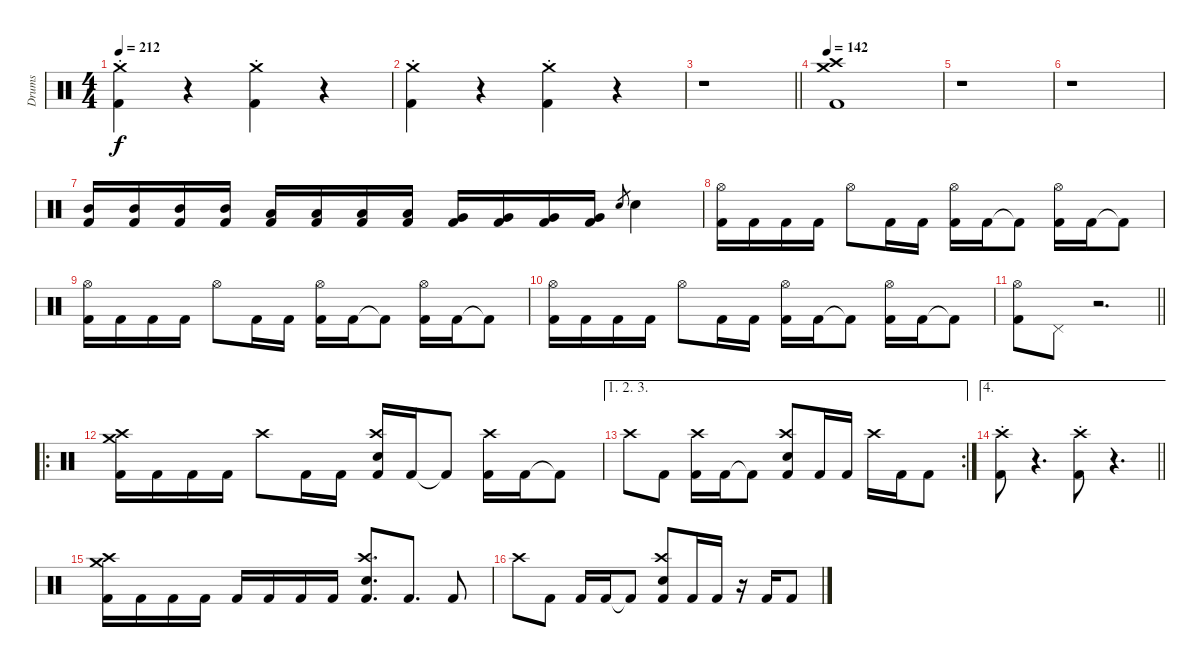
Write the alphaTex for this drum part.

\track ("Drums" "Drums") {instrument percussion}
\staff {score}
\articulation defaults
\ts (4 4)
\tempo 212
\clef neutral
\ks c
("Crash medium (hit)"{st} "Kick (hit) 2").4{dy f} r.4{volume 0} ("Crash medium (hit)"{st} "Kick (hit) 2").4{volume 14} r.4{volume 0} |
("Crash medium (hit)"{st} "Kick (hit) 2").4{volume 14} r.4{volume 0} ("Crash medium (hit)"{st} "Kick (hit) 2").4{volume 14} r.4{volume 0} |
\barLineRight lightlight
r.1 |
\tempo 142
("Crash medium (hit)" "Crash high (hit)" "Kick (hit) 2").1{volume 14} |
r.1 |
r.1 |
("Mid Tom (hit)" "Kick (hit) 2").16 ("Mid Tom (hit)" "Kick (hit) 2").16 ("Mid Tom (hit)" "Kick (hit) 2").16 ("Mid Tom (hit)" "Kick (hit) 2").16 ("Low Tom (hit)" "Kick (hit) 2").16 ("Low Tom (hit)" "Kick (hit) 2").16 ("Low Tom (hit)" "Kick (hit) 2").16 ("Low Tom (hit)" "Kick (hit) 2").16 ("Very Low Tom (hit)" "Kick (hit) 2").16 ("Very Low Tom (hit)" "Kick (hit) 2").16 ("Very Low Tom (hit)" "Kick (hit) 2").16 ("Very Low Tom (hit)" "Kick (hit) 2").16 "Electric Snare (hit)".8{gr} "Electric Snare (hit)".4 |
("Hi-Hat (open)" "Kick (hit) 2").16 "Kick (hit) 2".16 "Kick (hit) 2".16 "Kick (hit) 2".16 "Hi-Hat (open)".8 "Kick (hit) 2".16 "Kick (hit) 2".16 ("Hi-Hat (open)" "Kick (hit) 2").16 "Kick (hit) 2".16 "Kick (hit) 2"{t}.8 ("Hi-Hat (open)" "Kick (hit) 2").16 "Kick (hit) 2".16 "Kick (hit) 2"{t}.8 |
("Hi-Hat (open)" "Kick (hit) 2").16 "Kick (hit) 2".16 "Kick (hit) 2".16 "Kick (hit) 2".16 "Hi-Hat (open)".8 "Kick (hit) 2".16 "Kick (hit) 2".16 ("Hi-Hat (open)" "Kick (hit) 2").16 "Kick (hit) 2".16 "Kick (hit) 2"{t}.8 ("Hi-Hat (open)" "Kick (hit) 2").16 "Kick (hit) 2".16 "Kick (hit) 2"{t}.8 |
("Hi-Hat (open)" "Kick (hit) 2").16 "Kick (hit) 2".16 "Kick (hit) 2".16 "Kick (hit) 2".16 "Hi-Hat (open)".8 "Kick (hit) 2".16 "Kick (hit) 2".16 ("Hi-Hat (open)" "Kick (hit) 2").16 "Kick (hit) 2".16 "Kick (hit) 2"{t}.8 ("Hi-Hat (open)" "Kick (hit) 2").16 "Kick (hit) 2".16 "Kick (hit) 2"{t}.8 |
\barLineRight lightlight
("Hi-Hat (open)" "Kick (hit) 2").8 "Pedal Hi-Hat (hit)".8 r.2{d} |
\ro
("Crash medium (hit)" "Crash high (hit)" "Kick (hit) 2").16 "Kick (hit) 2".16 "Kick (hit) 2".16 "Kick (hit) 2".16 "Crash high (hit)".8 "Kick (hit) 2".16 "Kick (hit) 2".16 ("Crash high (hit)" "Electric Snare (hit)" "Kick (hit) 2").16 "Kick (hit) 2".16 "Kick (hit) 2"{t}.8 ("Crash high (hit)" "Kick (hit) 2").16 "Kick (hit) 2".16 "Kick (hit) 2"{t}.8 |
\ae (1 2 3)
\rc 2 "Crash high (hit)".8 "Kick (hit) 2".8
("Crash high (hit)" "Kick (hit) 2").16 "Kick (hit) 2".16 "Kick (hit) 2"{t}.8 ("Crash high (hit)" "Electric Snare (hit)" "Kick (hit) 2").8 "Kick (hit) 2".16 "Kick (hit) 2".16 "Crash high (hit)".16 "Kick (hit) 2".16 "Kick (hit) 2".8 |
\ae 4
\barLineRight lightlight
("Crash high (hit)"{st} "Kick (hit) 2").8 r.4{d volume 0} ("Crash high (hit)"{st} "Kick (hit) 2").8{volume 14} r.4{d volume 0} |
("Crash medium (hit)" "Crash high (hit)" "Kick (hit) 2").16{volume 14} "Kick (hit) 2".16 "Kick (hit) 2".16 "Kick (hit) 2".16 "Kick (hit) 2".16 "Kick (hit) 2".16 "Kick (hit) 2".16 "Kick (hit) 2".16 ("Crash high (hit)" "Electric Snare (hit)" "Kick (hit) 2").8{d} "Kick (hit) 2".8{d} "Kick (hit) 2".8 |
"Crash high (hit)".8 "Kick (hit) 2".8 "Kick (hit) 2".16 "Kick (hit) 2".16 "Kick (hit) 2"{t}.8 ("Crash high (hit)" "Electric Snare (hit)" "Kick (hit) 2").8 "Kick (hit) 2".16 "Kick (hit) 2".16 r.16 "Kick (hit) 2".16 "Kick (hit) 2".8
